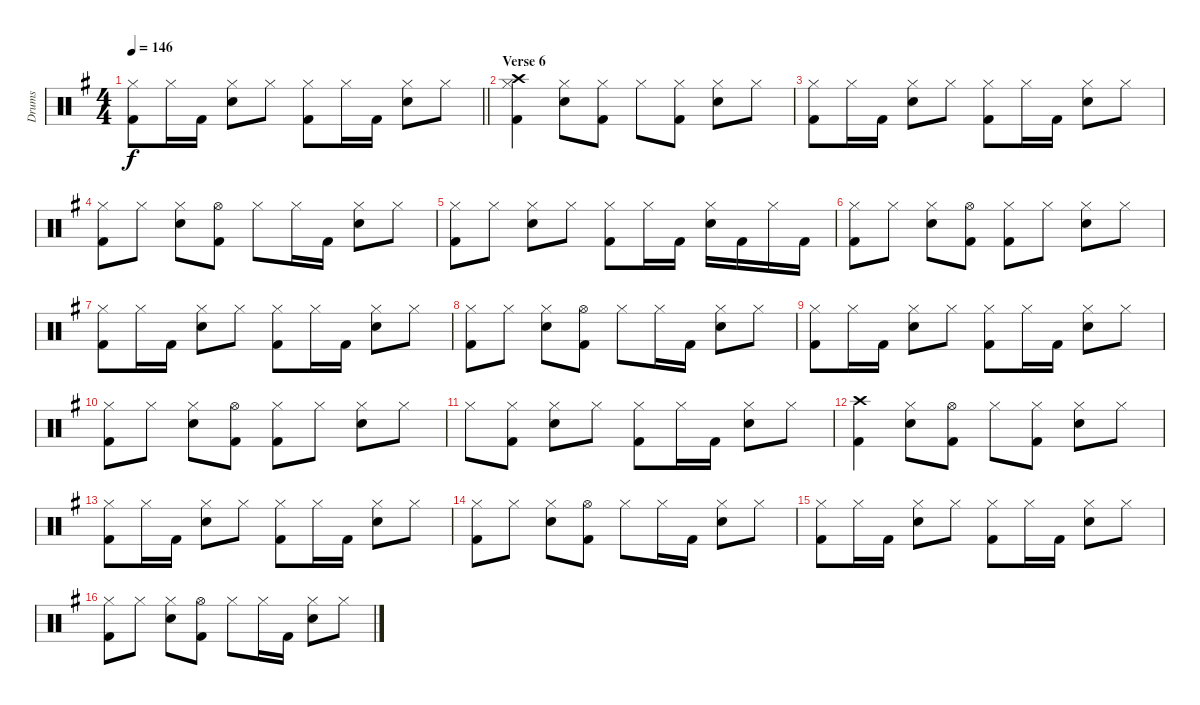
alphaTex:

\track ("Drums" "Drums") {instrument percussion}
\staff {score}
\articulation defaults
\ts (4 4)
\tempo 146
\clef neutral
\barLineRight lightlight
\ks g
("Kick (hit) 2" "Hi-Hat (closed)").8{dy f} "Hi-Hat (closed)".16 "Kick (hit) 2".16 ("Snare (hit) 2" "Hi-Hat (closed)").8 "Hi-Hat (closed)".8 ("Kick (hit) 2" "Hi-Hat (closed)").8 "Hi-Hat (closed)".16 "Kick (hit) 2".16 ("Snare (hit) 2" "Hi-Hat (closed)").8 "Hi-Hat (closed)".8 |
\section ("" "Verse 6")
("Kick (hit) 2" "Hi-Hat (closed)" "Crash high (hit)").4 ("Snare (hit) 2" "Hi-Hat (closed)").8 ("Kick (hit) 2" "Hi-Hat (closed)").8 "Hi-Hat (closed)".8 ("Kick (hit) 2" "Hi-Hat (closed)").8 ("Snare (hit) 2" "Hi-Hat (closed)").8 "Hi-Hat (closed)".8 |
("Kick (hit) 2" "Hi-Hat (closed)").8 "Hi-Hat (closed)".16 "Kick (hit) 2".16 ("Snare (hit) 2" "Hi-Hat (closed)").8 "Hi-Hat (closed)".8 ("Kick (hit) 2" "Hi-Hat (closed)").8 "Hi-Hat (closed)".16 "Kick (hit) 2".16 ("Snare (hit) 2" "Hi-Hat (closed)").8 "Hi-Hat (closed)".8 |
("Kick (hit) 2" "Hi-Hat (closed)").8 "Hi-Hat (closed)".8 ("Snare (hit) 2" "Hi-Hat (closed)").8 ("Kick (hit) 2" "Hi-Hat (open)").8 "Hi-Hat (closed)".8 "Hi-Hat (closed)".16 "Kick (hit) 2".16 ("Snare (hit) 2" "Hi-Hat (closed)").8 "Hi-Hat (closed)".8 |
("Kick (hit) 2" "Hi-Hat (closed)").8 "Hi-Hat (closed)".8 ("Snare (hit) 2" "Hi-Hat (closed)").8 "Hi-Hat (closed)".8 ("Kick (hit) 2" "Hi-Hat (closed)").8 "Hi-Hat (closed)".16 "Kick (hit) 2".16 ("Snare (hit) 2" "Hi-Hat (closed)").16 "Kick (hit) 2".16 "Hi-Hat (closed)".16 "Kick (hit) 2".16 |
("Kick (hit) 2" "Hi-Hat (closed)").8 "Hi-Hat (closed)".8 ("Snare (hit) 2" "Hi-Hat (closed)").8 ("Kick (hit) 2" "Hi-Hat (open)").8 ("Kick (hit) 2" "Hi-Hat (closed)").8 "Hi-Hat (closed)".8 ("Snare (hit) 2" "Hi-Hat (closed)").8 "Hi-Hat (closed)".8 |
("Kick (hit) 2" "Hi-Hat (closed)").8 "Hi-Hat (closed)".16 "Kick (hit) 2".16 ("Snare (hit) 2" "Hi-Hat (closed)").8 "Hi-Hat (closed)".8 ("Kick (hit) 2" "Hi-Hat (closed)").8 "Hi-Hat (closed)".16 "Kick (hit) 2".16 ("Snare (hit) 2" "Hi-Hat (closed)").8 "Hi-Hat (closed)".8 |
("Kick (hit) 2" "Hi-Hat (closed)").8 "Hi-Hat (closed)".8 ("Snare (hit) 2" "Hi-Hat (closed)").8 ("Kick (hit) 2" "Hi-Hat (open)").8 "Hi-Hat (closed)".8 "Hi-Hat (closed)".16 "Kick (hit) 2".16 ("Snare (hit) 2" "Hi-Hat (closed)").8 "Hi-Hat (closed)".8 |
("Kick (hit) 2" "Hi-Hat (closed)").8 "Hi-Hat (closed)".16 "Kick (hit) 2".16 ("Snare (hit) 2" "Hi-Hat (closed)").8 "Hi-Hat (closed)".8 ("Kick (hit) 2" "Hi-Hat (closed)").8 "Hi-Hat (closed)".16 "Kick (hit) 2".16 ("Snare (hit) 2" "Hi-Hat (closed)").8 "Hi-Hat (closed)".8 |
("Kick (hit) 2" "Hi-Hat (closed)").8 "Hi-Hat (closed)".8 ("Snare (hit) 2" "Hi-Hat (closed)").8 ("Kick (hit) 2" "Hi-Hat (open)").8 ("Kick (hit) 2" "Hi-Hat (closed)").8 "Hi-Hat (closed)".8 ("Snare (hit) 2" "Hi-Hat (closed)").8 "Hi-Hat (closed)".8 |
"Hi-Hat (closed)".8 ("Kick (hit) 2" "Hi-Hat (closed)").8 ("Snare (hit) 2" "Hi-Hat (closed)").8 "Hi-Hat (closed)".8 ("Kick (hit) 2" "Hi-Hat (closed)").8 "Hi-Hat (closed)".16 "Kick (hit) 2".16 ("Snare (hit) 2" "Hi-Hat (closed)").8 "Hi-Hat (closed)".8 |
("Kick (hit) 2" "Crash high (hit)").4 ("Snare (hit) 2" "Hi-Hat (closed)").8 ("Kick (hit) 2" "Hi-Hat (open)").8 "Hi-Hat (closed)".8 ("Kick (hit) 2" "Hi-Hat (closed)").8 ("Snare (hit) 2" "Hi-Hat (closed)").8 "Hi-Hat (closed)".8 |
("Kick (hit) 2" "Hi-Hat (closed)").8 "Hi-Hat (closed)".16 "Kick (hit) 2".16 ("Snare (hit) 2" "Hi-Hat (closed)").8 "Hi-Hat (closed)".8 ("Kick (hit) 2" "Hi-Hat (closed)").8 "Hi-Hat (closed)".16 "Kick (hit) 2".16 ("Snare (hit) 2" "Hi-Hat (closed)").8 "Hi-Hat (closed)".8 |
("Kick (hit) 2" "Hi-Hat (closed)").8 "Hi-Hat (closed)".8 ("Snare (hit) 2" "Hi-Hat (closed)").8 ("Kick (hit) 2" "Hi-Hat (open)").8 "Hi-Hat (closed)".8 "Hi-Hat (closed)".16 "Kick (hit) 2".16 ("Snare (hit) 2" "Hi-Hat (closed)").8 "Hi-Hat (closed)".8 |
("Kick (hit) 2" "Hi-Hat (closed)").8 "Hi-Hat (closed)".16 "Kick (hit) 2".16 ("Snare (hit) 2" "Hi-Hat (closed)").8 "Hi-Hat (closed)".8 ("Kick (hit) 2" "Hi-Hat (closed)").8 "Hi-Hat (closed)".16 "Kick (hit) 2".16 ("Snare (hit) 2" "Hi-Hat (closed)").8 "Hi-Hat (closed)".8 |
("Kick (hit) 2" "Hi-Hat (closed)").8 "Hi-Hat (closed)".8 ("Snare (hit) 2" "Hi-Hat (closed)").8 ("Kick (hit) 2" "Hi-Hat (open)").8 "Hi-Hat (closed)".8 "Hi-Hat (closed)".16 "Kick (hit) 2".16 ("Snare (hit) 2" "Hi-Hat (closed)").8 "Hi-Hat (closed)".8
